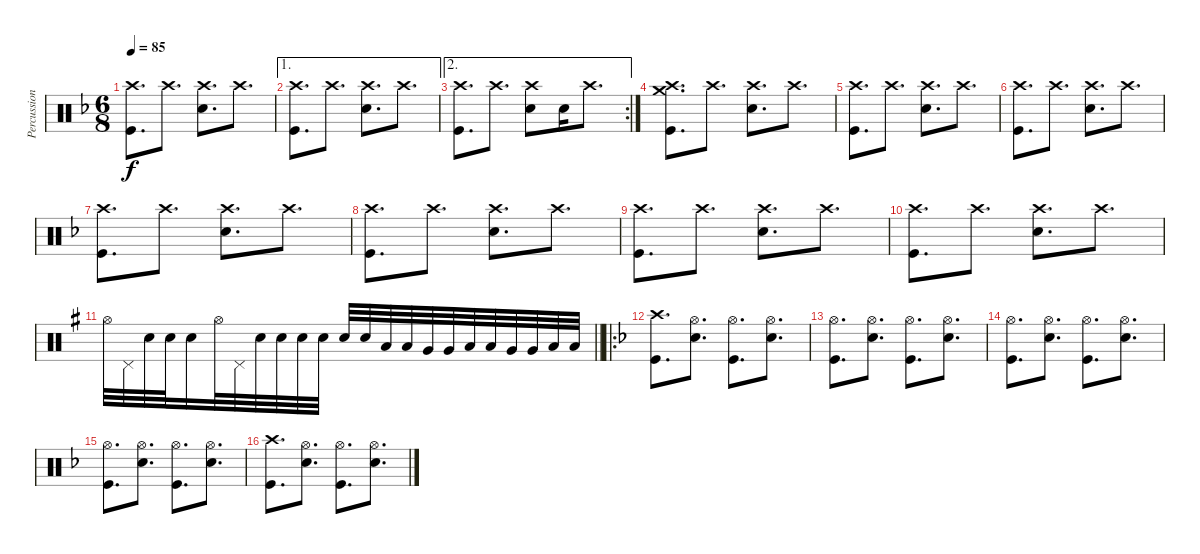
\track ("Percussion" "Percussion") {instrument percussion}
\staff {score}
\articulation defaults
\ts (6 8)
\tempo 85
\clef neutral
\ks f
("Kick (hit)" "Crash high (hit)").8{d dy f} "Crash high (hit)".8{d} ("Snare (hit) 2" "Crash high (hit)").8{d} "Crash high (hit)".8{d} |
\ae 1
("Kick (hit)" "Crash high (hit)").8{d} "Crash high (hit)".8{d} ("Snare (hit) 2" "Crash high (hit)").8{d} "Crash high (hit)".8{d} |
\ae 2
\rc 2
("Kick (hit)" "Crash high (hit)").8{d} "Crash high (hit)".8{d} ("Snare (hit) 2" "Crash high (hit)").8 "Snare (hit) 2".16 "Crash high (hit)".8{d} |
("Kick (hit)" "Crash high (hit)" "Crash medium (hit)").8{d} "Crash high (hit)".8{d} ("Snare (hit) 2" "Crash high (hit)").8{d} "Crash high (hit)".8{d} |
("Kick (hit)" "Crash high (hit)").8{d} "Crash high (hit)".8{d} ("Snare (hit) 2" "Crash high (hit)").8{d} "Crash high (hit)".8{d} |
("Kick (hit)" "Crash high (hit)").8{d} "Crash high (hit)".8{d} ("Snare (hit) 2" "Crash high (hit)").8{d} "Crash high (hit)".8{d} |
("Kick (hit)" "Crash high (hit)").8{d} "Crash high (hit)".8{d} ("Snare (hit) 2" "Crash high (hit)").8{d} "Crash high (hit)".8{d} |
("Kick (hit)" "Crash high (hit)").8{d} "Crash high (hit)".8{d} ("Snare (hit) 2" "Crash high (hit)").8{d} "Crash high (hit)".8{d} |
("Kick (hit)" "Crash high (hit)").8{d} "Crash high (hit)".8{d} ("Snare (hit) 2" "Crash high (hit)").8{d} "Crash high (hit)".8{d} |
("Kick (hit)" "Crash high (hit)").8{d} "Crash high (hit)".8{d} ("Snare (hit) 2" "Crash high (hit)").8{d} "Crash high (hit)".8{d} |
\barLineRight lightlight
\ks g "Hi-Hat (open)".32 "Pedal Hi-Hat (hit)".32 "Snare (hit) 2".32 "Snare (hit) 2".32 "Snare (hit) 2".16 "Hi-Hat (open)".32 "Pedal Hi-Hat (hit)".32 "Snare (hit) 2".32 "Snare (hit) 2".32 "Snare (hit) 2".32 "Snare (hit) 2".32 "Snare (hit) 2".32 "Snare (hit) 2".32 "Low Tom (hit)".32 "Low Tom (hit)".32 "Very Low Tom (hit)".32 "Very Low Tom (hit)".32 "Low Tom (hit)".32 "Low Tom (hit)".32 "Very Low Tom (hit)".32 "Very Low Tom (hit)".32 "Low Floor Tom (hit)".32 "Low Floor Tom (hit)".32
|
\ro
\ks f
("Kick (hit)" "Crash high (hit)").8{d} ("Hi-Hat (open)" "Snare (hit) 2").8{d} ("Hi-Hat (open)" "Kick (hit)").8{d} ("Snare (hit) 2" "Hi-Hat (open)").8{d} |
("Hi-Hat (open)" "Kick (hit)").8{d} ("Hi-Hat (open)" "Snare (hit) 2").8{d} ("Hi-Hat (open)" "Kick (hit)").8{d} ("Hi-Hat (open)" "Snare (hit) 2").8{d} |
("Hi-Hat (open)" "Kick (hit)").8{d} ("Hi-Hat (open)" "Snare (hit) 2").8{d} ("Hi-Hat (open)" "Kick (hit)").8{d} ("Hi-Hat (open)" "Snare (hit) 2").8{d} |
("Hi-Hat (open)" "Kick (hit)").8{d} ("Hi-Hat (open)" "Snare (hit) 2").8{d} ("Hi-Hat (open)" "Kick (hit)").8{d} ("Hi-Hat (open)" "Snare (hit) 2").8{d} |
("Kick (hit)" "Crash high (hit)").8{d} ("Hi-Hat (open)" "Snare (hit) 2").8{d} ("Hi-Hat (open)" "Kick (hit)").8{d} ("Snare (hit) 2" "Hi-Hat (open)").8{d}
